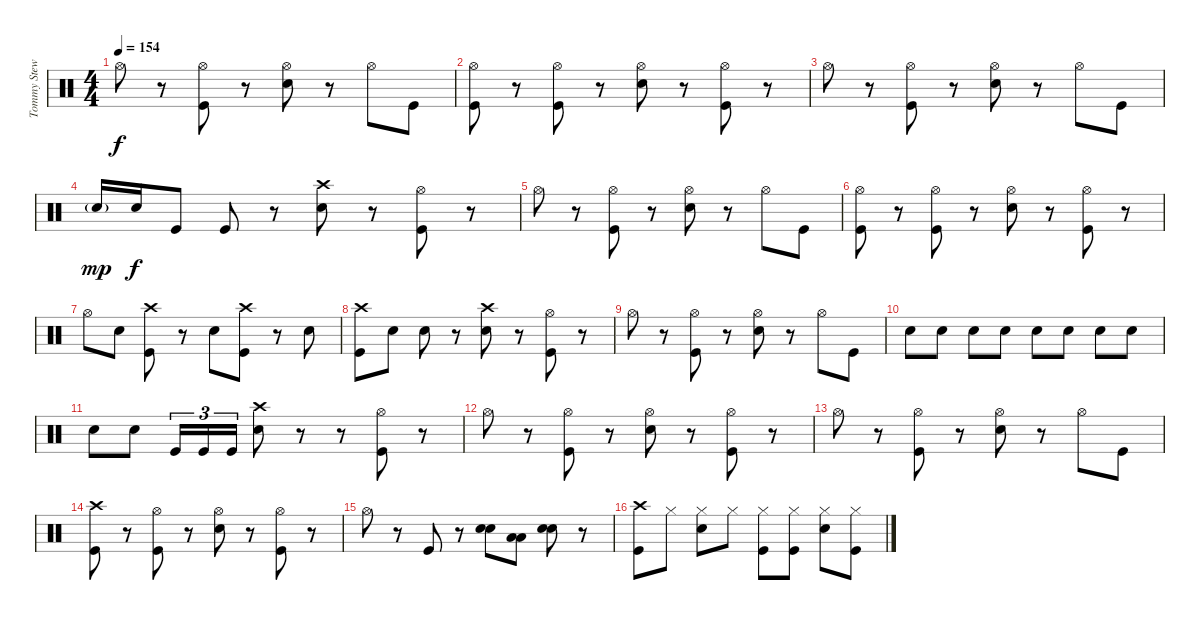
\track ("Tommy Stewart" "Tommy Stew") {instrument percussion}
\staff {score}
\articulation defaults
\ts (4 4)
\tempo 154
\clef neutral
\ks c "Hi-Hat (open)".8{dy f}
r.8 ("Hi-Hat (open)" "Kick (hit)").8 r.8 ("Hi-Hat (open)" "Snare (hit) 2").8 r.8 "Hi-Hat (open)".8 "Kick (hit)".8 |
("Hi-Hat (open)" "Kick (hit)").8 r.8 ("Hi-Hat (open)" "Kick (hit)").8 r.8 ("Hi-Hat (open)" "Snare (hit) 2").8 r.8 ("Hi-Hat (open)" "Kick (hit)").8 r.8 |
"Hi-Hat (open)".8 r.8 ("Hi-Hat (open)" "Kick (hit)").8 r.8 ("Hi-Hat (open)" "Snare (hit) 2").8 r.8 "Hi-Hat (open)".8 "Kick (hit)".8 |
"Snare (hit) 2"{g}.16{dy mp} "Snare (hit) 2".16{dy f} "Kick (hit)".8 "Kick (hit)".8 r.8 ("Crash high (hit)" "Snare (hit) 2").8 r.8 ("Hi-Hat (open)" "Kick (hit)").8 r.8 |
"Hi-Hat (open)".8 r.8 ("Hi-Hat (open)" "Kick (hit)").8 r.8 ("Hi-Hat (open)" "Snare (hit) 2").8 r.8 "Hi-Hat (open)".8 "Kick (hit)".8 |
("Hi-Hat (open)" "Kick (hit)").8 r.8 ("Hi-Hat (open)" "Kick (hit)").8 r.8 ("Hi-Hat (open)" "Snare (hit) 2").8 r.8 ("Hi-Hat (open)" "Kick (hit)").8 r.8 |
"Hi-Hat (open)".8 "Snare (hit) 2".8 ("Crash high (hit)" "Kick (hit)").8 r.8 "Snare (hit) 2".8 ("Crash high (hit)" "Kick (hit)").8 r.8 "Snare (hit) 2".8 |
("Crash high (hit)" "Kick (hit)").8 "Snare (hit) 2".8 "Snare (hit) 2".8 r.8 ("Crash high (hit)" "Snare (hit) 2").8 r.8 ("Hi-Hat (open)" "Kick (hit)").8 r.8 |
"Hi-Hat (open)".8 r.8 ("Hi-Hat (open)" "Kick (hit)").8 r.8 ("Hi-Hat (open)" "Snare (hit) 2").8 r.8 "Hi-Hat (open)".8 "Kick (hit)".8 |
"Snare (hit) 2".8 "Snare (hit) 2".8 "Snare (hit) 2".8 "Snare (hit) 2".8 "Snare (hit) 2".8 "Snare (hit) 2".8 "Snare (hit) 2".8 "Snare (hit) 2".8 |
"Snare (hit) 2".8 "Snare (hit) 2".8 "Kick (hit)".16{tu (3 2)} "Kick (hit)".16{tu (3 2)} "Kick (hit)".16{tu (3 2)} ("Crash high (hit)" "Snare (hit) 2").8 r.8 r.8 ("Hi-Hat (open)" "Kick (hit)").8 r.8 |
"Hi-Hat (open)".8 r.8 ("Hi-Hat (open)" "Kick (hit)").8 r.8 ("Hi-Hat (open)" "Snare (hit) 2").8 r.8 ("Hi-Hat (open)" "Kick (hit)").8 r.8 |
"Hi-Hat (open)".8 r.8 ("Hi-Hat (open)" "Kick (hit)").8 r.8 ("Hi-Hat (open)" "Snare (hit) 2").8 r.8 "Hi-Hat (open)".8 "Kick (hit)".8 |
("Crash high (hit)" "Kick (hit)").8 r.8 ("Hi-Hat (open)" "Kick (hit)").8 r.8 ("Hi-Hat (open)" "Snare (hit) 2").8 r.8 ("Hi-Hat (open)" "Kick (hit)").8 r.8 |
"Hi-Hat (open)".8 r.8 "Kick (hit)".8 r.8 ("Snare (hit) 2" "Snare (hit) 2").8 ("Low Floor Tom (hit)" "Low Floor Tom (hit)").8 ("Snare (hit) 2" "Snare (hit) 2").8 r.8 |
("Crash high (hit)" "Kick (hit)").8 "Hi-Hat (closed)".8 ("Hi-Hat (closed)" "Snare (hit) 2").8 "Hi-Hat (closed)".8 ("Hi-Hat (closed)" "Kick (hit)").8 ("Hi-Hat (closed)" "Kick (hit)").8 ("Hi-Hat (closed)" "Snare (hit) 2").8 ("Hi-Hat (closed)" "Kick (hit)").8
